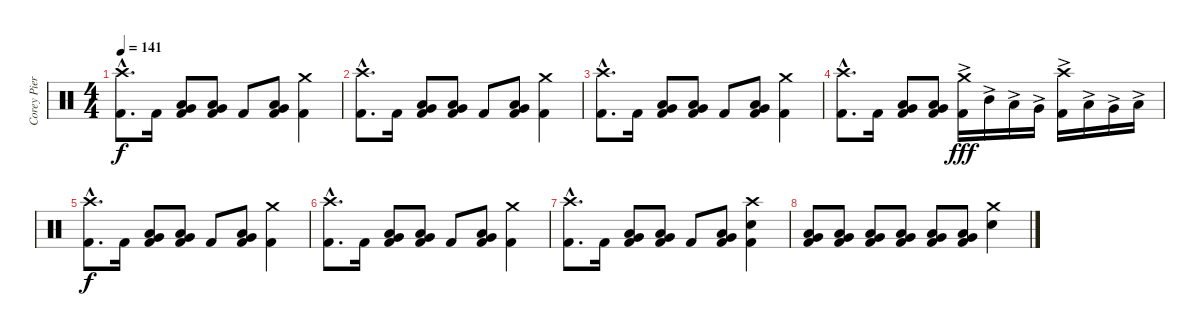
\track ("Corey Pierce (Drums)" "Corey Pier") {instrument percussion}
\staff {score}
\articulation defaults
\ts (4 4)
\tempo 141
\clef neutral
\ks c
("Crash high (hit)"{hac} "Kick (hit) 2"{hac}).8{d dy f} "Kick (hit) 2".16 ("Low Tom (hit)" "Very Low Tom (hit)" "Kick (hit) 2").8 ("Very Low Tom (hit)" "Low Floor Tom (hit)" "Kick (hit) 2").8 "Kick (hit) 2".8 ("Very Low Tom (hit)" "Low Tom (hit)" "Kick (hit) 2").8 ("Crash medium (hit)" "Kick (hit) 2").4 |
("Crash high (hit)"{hac} "Kick (hit) 2"{hac}).8{d} "Kick (hit) 2".16 ("Low Tom (hit)" "Very Low Tom (hit)" "Kick (hit) 2").8 ("Very Low Tom (hit)" "Low Floor Tom (hit)" "Kick (hit) 2").8 "Kick (hit) 2".8 ("Very Low Tom (hit)" "Low Tom (hit)" "Kick (hit) 2").8 ("Crash medium (hit)" "Kick (hit) 2").4 |
("Crash high (hit)"{hac} "Kick (hit) 2"{hac}).8{d} "Kick (hit) 2".16 ("Low Tom (hit)" "Very Low Tom (hit)" "Kick (hit) 2").8 ("Very Low Tom (hit)" "Low Floor Tom (hit)" "Kick (hit) 2").8 "Kick (hit) 2".8 ("Very Low Tom (hit)" "Low Tom (hit)" "Kick (hit) 2").8 ("Crash medium (hit)" "Kick (hit) 2").4 |
("Crash high (hit)"{hac} "Kick (hit) 2"{hac}).8{d} "Kick (hit) 2".16 ("Low Tom (hit)" "Very Low Tom (hit)" "Kick (hit) 2").8 ("Very Low Tom (hit)" "Low Floor Tom (hit)" "Kick (hit) 2").8 ("Crash medium (hit)" "Kick (hit) 2"{ac}).16{dy fff} "Mid Tom (hit)"{ac}.16 "Low Tom (hit)"{ac}.16 "Very Low Tom (hit)"{ac}.16 ("Crash high (hit)" "Kick (hit) 2"{ac}).16 "Low Tom (hit)"{ac}.16 "Very Low Tom (hit)"{ac}.16 "Low Floor Tom (hit)"{ac}.16 |
("Crash high (hit)"{hac} "Kick (hit) 2"{hac}).8{d dy f} "Kick (hit) 2".16 ("Low Tom (hit)" "Very Low Tom (hit)" "Kick (hit) 2").8 ("Very Low Tom (hit)" "Low Floor Tom (hit)" "Kick (hit) 2").8 "Kick (hit) 2".8 ("Very Low Tom (hit)" "Low Tom (hit)" "Kick (hit) 2").8 ("Crash medium (hit)" "Kick (hit) 2").4 |
("Crash high (hit)"{hac} "Kick (hit) 2"{hac}).8{d} "Kick (hit) 2".16 ("Low Tom (hit)" "Very Low Tom (hit)" "Kick (hit) 2").8 ("Very Low Tom (hit)" "Low Floor Tom (hit)" "Kick (hit) 2").8 "Kick (hit) 2".8 ("Very Low Tom (hit)" "Low Tom (hit)" "Kick (hit) 2").8 ("Crash medium (hit)" "Kick (hit) 2").4 |
("Crash high (hit)"{hac} "Kick (hit) 2"{hac}).8{d} "Kick (hit) 2".16 ("Low Tom (hit)" "Very Low Tom (hit)" "Kick (hit) 2").8 ("Very Low Tom (hit)" "Low Floor Tom (hit)" "Kick (hit) 2").8 "Kick (hit) 2".8 ("Very Low Tom (hit)" "Low Tom (hit)" "Kick (hit) 2").8 ("Crash high (hit)" "Snare (hit) 2" "Kick (hit) 2").4 |
("Very Low Tom (hit)" "Low Tom (hit)" "Kick (hit) 2").8 ("Very Low Tom (hit)" "Low Tom (hit)" "Kick (hit) 2").8 ("Very Low Tom (hit)" "Low Tom (hit)" "Kick (hit) 2").8 ("Very Low Tom (hit)" "Low Tom (hit)" "Kick (hit) 2").8 ("Very Low Tom (hit)" "Low Tom (hit)" "Kick (hit) 2").8 ("Very Low Tom (hit)" "Low Tom (hit)" "Kick (hit) 2").8 ("Crash medium (hit)" "Snare (hit) 2").4
